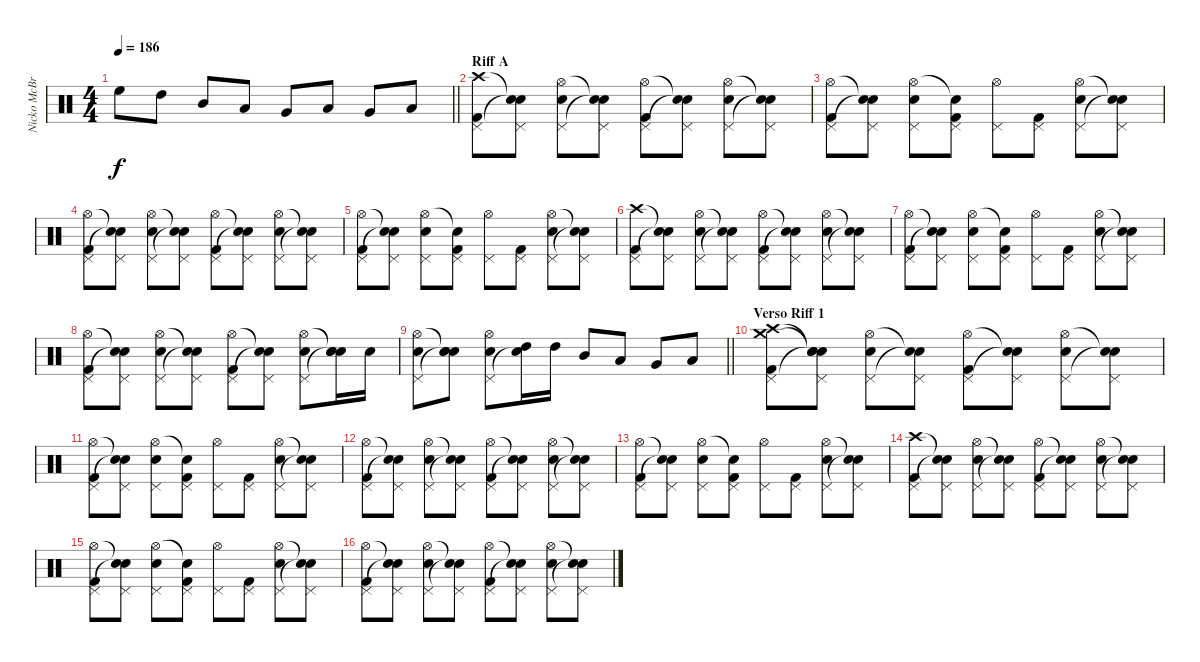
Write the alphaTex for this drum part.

\track ("Nicko McBrain" "Nicko McBr") {instrument percussion}
\staff {score}
\articulation defaults
\ts (4 4)
\tempo 186
\clef neutral
\barLineRight lightlight
\ks c "High Floor Tom (hit)".8{dy f} "High Tom (hit)".8 "Mid Tom (hit)".8 "Low Tom (hit)".8 "Very Low Tom (hit)".8 "Low Floor Tom (hit)".8 "Very Low Tom (hit)".8 "Low Floor Tom (hit)".8
|
\section ("" "Riff A")
("Kick (hit) 2" "Pedal Hi-Hat (hit)" "Crash high (hit)").8 ("Pedal Hi-Hat (hit)" "Snare (hit)"{t} "Snare (hit)"{t}).8 ("Snare (hit) 2" "Pedal Hi-Hat (hit)" "Hi-Hat (open)").8 ("Pedal Hi-Hat (hit)" "Snare (hit)"{t} "Snare (hit)"{t}).8 ("Kick (hit) 2" "Pedal Hi-Hat (hit)" "Hi-Hat (open)").8 ("Pedal Hi-Hat (hit)" "Snare (hit)"{t} "Snare (hit)"{t}).8 ("Snare (hit) 2" "Pedal Hi-Hat (hit)" "Hi-Hat (open)").8 ("Pedal Hi-Hat (hit)" "Snare (hit)"{t} "Snare (hit)"{t}).8 |
("Kick (hit) 2" "Pedal Hi-Hat (hit)" "Hi-Hat (open)").8 ("Pedal Hi-Hat (hit)" "Snare (hit)"{t} "Snare (hit)"{t}).8 ("Snare (hit) 2" "Pedal Hi-Hat (hit)" "Hi-Hat (open)").8 ("Kick (hit) 2" "Pedal Hi-Hat (hit)" "Snare (hit)"{t}).8 ("Pedal Hi-Hat (hit)" "Hi-Hat (open)").8 ("Kick (hit) 2" "Pedal Hi-Hat (hit)").8 ("Snare (hit) 2" "Pedal Hi-Hat (hit)" "Hi-Hat (open)").8 ("Pedal Hi-Hat (hit)" "Snare (hit)"{t} "Snare (hit)"{t}).8 |
("Kick (hit) 2" "Pedal Hi-Hat (hit)" "Hi-Hat (open)").8 ("Pedal Hi-Hat (hit)" "Snare (hit)"{t} "Snare (hit)"{t}).8 ("Snare (hit) 2" "Pedal Hi-Hat (hit)" "Hi-Hat (open)").8 ("Pedal Hi-Hat (hit)" "Snare (hit)"{t} "Snare (hit)"{t}).8 ("Kick (hit) 2" "Pedal Hi-Hat (hit)" "Hi-Hat (open)").8 ("Pedal Hi-Hat (hit)" "Snare (hit)"{t} "Snare (hit)"{t}).8 ("Snare (hit) 2" "Pedal Hi-Hat (hit)" "Hi-Hat (open)").8 ("Pedal Hi-Hat (hit)" "Snare (hit)"{t} "Snare (hit)"{t}).8 |
("Kick (hit) 2" "Pedal Hi-Hat (hit)" "Hi-Hat (open)").8 ("Pedal Hi-Hat (hit)" "Snare (hit)"{t} "Snare (hit)"{t}).8 ("Snare (hit) 2" "Pedal Hi-Hat (hit)" "Hi-Hat (open)").8 ("Kick (hit) 2" "Pedal Hi-Hat (hit)" "Snare (hit)"{t}).8 ("Pedal Hi-Hat (hit)" "Hi-Hat (open)").8 ("Kick (hit) 2" "Pedal Hi-Hat (hit)").8 ("Snare (hit) 2" "Pedal Hi-Hat (hit)" "Hi-Hat (open)").8 ("Pedal Hi-Hat (hit)" "Snare (hit)"{t} "Snare (hit)"{t}).8 |
("Kick (hit) 2" "Pedal Hi-Hat (hit)" "Crash high (hit)").8 ("Pedal Hi-Hat (hit)" "Snare (hit)"{t} "Snare (hit)"{t}).8 ("Snare (hit) 2" "Pedal Hi-Hat (hit)" "Hi-Hat (open)").8 ("Pedal Hi-Hat (hit)" "Snare (hit)"{t} "Snare (hit)"{t}).8 ("Kick (hit) 2" "Pedal Hi-Hat (hit)" "Hi-Hat (open)").8 ("Pedal Hi-Hat (hit)" "Snare (hit)"{t} "Snare (hit)"{t}).8 ("Snare (hit) 2" "Pedal Hi-Hat (hit)" "Hi-Hat (open)").8 ("Pedal Hi-Hat (hit)" "Snare (hit)"{t} "Snare (hit)"{t}).8 |
("Kick (hit) 2" "Pedal Hi-Hat (hit)" "Hi-Hat (open)").8 ("Pedal Hi-Hat (hit)" "Snare (hit)"{t} "Snare (hit)"{t}).8 ("Snare (hit) 2" "Pedal Hi-Hat (hit)" "Hi-Hat (open)").8 ("Kick (hit) 2" "Pedal Hi-Hat (hit)" "Snare (hit)"{t}).8 ("Pedal Hi-Hat (hit)" "Hi-Hat (open)").8 ("Kick (hit) 2" "Pedal Hi-Hat (hit)").8 ("Snare (hit) 2" "Pedal Hi-Hat (hit)" "Hi-Hat (open)").8 ("Pedal Hi-Hat (hit)" "Snare (hit)"{t} "Snare (hit)"{t}).8 |
("Kick (hit) 2" "Pedal Hi-Hat (hit)" "Hi-Hat (open)").8 ("Pedal Hi-Hat (hit)" "Snare (hit)"{t} "Snare (hit)"{t}).8 ("Snare (hit) 2" "Pedal Hi-Hat (hit)" "Hi-Hat (open)").8 ("Pedal Hi-Hat (hit)" "Snare (hit)"{t} "Snare (hit)"{t}).8 ("Kick (hit) 2" "Pedal Hi-Hat (hit)" "Hi-Hat (open)").8 ("Pedal Hi-Hat (hit)" "Snare (hit)"{t} "Snare (hit)"{t}).8 ("Snare (hit) 2" "Pedal Hi-Hat (hit)" "Hi-Hat (open)").8 ("Snare (hit) 2" "Snare (hit)"{t} "Snare (hit)"{t}).16 "Snare (hit) 2".16 |
\barLineRight lightlight
("Snare (hit) 2" "Pedal Hi-Hat (hit)" "Hi-Hat (open)").8 ("Snare (hit) 2" "Snare (hit)"{t} "Snare (hit)"{t}).8 ("Snare (hit) 2" "Pedal Hi-Hat (hit)" "Hi-Hat (open)").8 ("High Tom (hit)" "Snare (hit)"{t}).16 "High Tom (hit)".16 "Mid Tom (hit)".8 "Low Tom (hit)".8 "Very Low Tom (hit)".8 "Low Floor Tom (hit)".8 |
\section ("" "Verso Riff 1")
("Kick (hit) 2" "Pedal Hi-Hat (hit)" "Crash high (hit)" "Crash medium (hit)").8 ("Pedal Hi-Hat (hit)" "Snare (hit)"{t} "Snare (hit)"{t} "Snare (hit)"{t}).8 ("Snare (hit) 2" "Pedal Hi-Hat (hit)" "Hi-Hat (open)").8 ("Pedal Hi-Hat (hit)" "Snare (hit)"{t} "Snare (hit)"{t}).8 ("Kick (hit) 2" "Pedal Hi-Hat (hit)" "Hi-Hat (open)").8 ("Pedal Hi-Hat (hit)" "Snare (hit)"{t} "Snare (hit)"{t}).8 ("Snare (hit) 2" "Pedal Hi-Hat (hit)" "Hi-Hat (open)").8 ("Pedal Hi-Hat (hit)" "Snare (hit)"{t} "Snare (hit)"{t}).8 |
("Kick (hit) 2" "Pedal Hi-Hat (hit)" "Hi-Hat (open)").8 ("Pedal Hi-Hat (hit)" "Snare (hit)"{t} "Snare (hit)"{t}).8 ("Snare (hit) 2" "Pedal Hi-Hat (hit)" "Hi-Hat (open)").8 ("Kick (hit) 2" "Pedal Hi-Hat (hit)" "Snare (hit)"{t}).8 ("Pedal Hi-Hat (hit)" "Hi-Hat (open)").8 ("Kick (hit) 2" "Pedal Hi-Hat (hit)").8 ("Snare (hit) 2" "Pedal Hi-Hat (hit)" "Hi-Hat (open)").8 ("Pedal Hi-Hat (hit)" "Snare (hit)"{t} "Snare (hit)"{t}).8 |
("Kick (hit) 2" "Pedal Hi-Hat (hit)" "Hi-Hat (open)").8 ("Pedal Hi-Hat (hit)" "Snare (hit)"{t} "Snare (hit)"{t}).8 ("Snare (hit) 2" "Pedal Hi-Hat (hit)" "Hi-Hat (open)").8 ("Pedal Hi-Hat (hit)" "Snare (hit)"{t} "Snare (hit)"{t}).8 ("Kick (hit) 2" "Pedal Hi-Hat (hit)" "Hi-Hat (open)").8 ("Pedal Hi-Hat (hit)" "Snare (hit)"{t} "Snare (hit)"{t}).8 ("Snare (hit) 2" "Pedal Hi-Hat (hit)" "Hi-Hat (open)").8 ("Pedal Hi-Hat (hit)" "Snare (hit)"{t} "Snare (hit)"{t}).8 |
("Kick (hit) 2" "Pedal Hi-Hat (hit)" "Hi-Hat (open)").8 ("Pedal Hi-Hat (hit)" "Snare (hit)"{t} "Snare (hit)"{t}).8 ("Snare (hit) 2" "Pedal Hi-Hat (hit)" "Hi-Hat (open)").8 ("Kick (hit) 2" "Pedal Hi-Hat (hit)" "Snare (hit)"{t}).8 ("Pedal Hi-Hat (hit)" "Hi-Hat (open)").8 ("Kick (hit) 2" "Pedal Hi-Hat (hit)").8 ("Snare (hit) 2" "Pedal Hi-Hat (hit)" "Hi-Hat (open)").8 ("Pedal Hi-Hat (hit)" "Snare (hit)"{t} "Snare (hit)"{t}).8 |
("Kick (hit) 2" "Pedal Hi-Hat (hit)" "Crash high (hit)").8 ("Pedal Hi-Hat (hit)" "Snare (hit)"{t} "Snare (hit)"{t}).8 ("Snare (hit) 2" "Pedal Hi-Hat (hit)" "Hi-Hat (open)").8 ("Pedal Hi-Hat (hit)" "Snare (hit)"{t} "Snare (hit)"{t}).8 ("Kick (hit) 2" "Pedal Hi-Hat (hit)" "Hi-Hat (open)").8 ("Pedal Hi-Hat (hit)" "Snare (hit)"{t} "Snare (hit)"{t}).8 ("Snare (hit) 2" "Pedal Hi-Hat (hit)" "Hi-Hat (open)").8 ("Pedal Hi-Hat (hit)" "Snare (hit)"{t} "Snare (hit)"{t}).8 |
("Kick (hit) 2" "Pedal Hi-Hat (hit)" "Hi-Hat (open)").8 ("Pedal Hi-Hat (hit)" "Snare (hit)"{t} "Snare (hit)"{t}).8 ("Snare (hit) 2" "Pedal Hi-Hat (hit)" "Hi-Hat (open)").8 ("Kick (hit) 2" "Pedal Hi-Hat (hit)" "Snare (hit)"{t}).8 ("Pedal Hi-Hat (hit)" "Hi-Hat (open)").8 ("Kick (hit) 2" "Pedal Hi-Hat (hit)").8 ("Snare (hit) 2" "Pedal Hi-Hat (hit)" "Hi-Hat (open)").8 ("Pedal Hi-Hat (hit)" "Snare (hit)"{t} "Snare (hit)"{t}).8 |
("Kick (hit) 2" "Pedal Hi-Hat (hit)" "Hi-Hat (open)").8 ("Pedal Hi-Hat (hit)" "Snare (hit)"{t} "Snare (hit)"{t}).8 ("Snare (hit) 2" "Pedal Hi-Hat (hit)" "Hi-Hat (open)").8 ("Pedal Hi-Hat (hit)" "Snare (hit)"{t} "Snare (hit)"{t}).8 ("Kick (hit) 2" "Pedal Hi-Hat (hit)" "Hi-Hat (open)").8 ("Pedal Hi-Hat (hit)" "Snare (hit)"{t} "Snare (hit)"{t}).8 ("Snare (hit) 2" "Pedal Hi-Hat (hit)" "Hi-Hat (open)").8 ("Pedal Hi-Hat (hit)" "Snare (hit)"{t} "Snare (hit)"{t}).8
